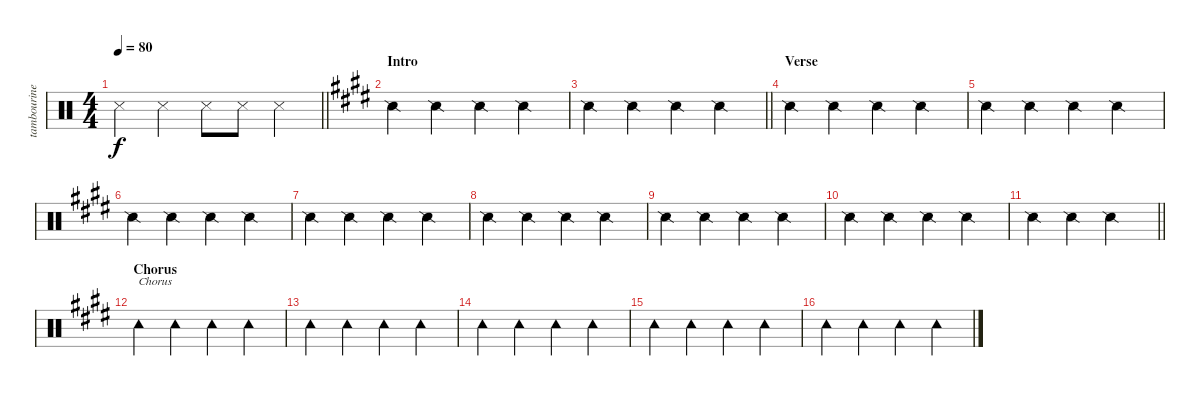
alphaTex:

\track ("tambourine" "tambourine") {instrument percussion}
\staff {score}
\articulation defaults
\ts (4 4)
\tempo 80
\clef neutral
\barLineRight lightlight
\ks c "Snare (side stick) 3".4{dy f} "Snare (side stick) 3".4 "Snare (side stick) 3".8 "Snare (side stick) 3".8 "Snare (side stick) 3".4
|
\section ("" "Intro")
\ks e "Snare (side stick) 2".4 "Snare (side stick) 2".4 "Snare (side stick) 2".4 "Snare (side stick) 2".4
|
\barLineRight lightlight "Snare (side stick) 2".4 "Snare (side stick) 2".4 "Snare (side stick) 2".4 "Snare (side stick) 2".4
|
\section ("" "Verse")
"Snare (side stick) 2".4 "Snare (side stick) 2".4 "Snare (side stick) 2".4 "Snare (side stick) 2".4 |
"Snare (side stick) 2".4 "Snare (side stick) 2".4 "Snare (side stick) 2".4 "Snare (side stick) 2".4 |
"Snare (side stick) 2".4 "Snare (side stick) 2".4 "Snare (side stick) 2".4 "Snare (side stick) 2".4 |
"Snare (side stick) 2".4 "Snare (side stick) 2".4 "Snare (side stick) 2".4 "Snare (side stick) 2".4 |
"Snare (side stick) 2".4 "Snare (side stick) 2".4 "Snare (side stick) 2".4 "Snare (side stick) 2".4 |
"Snare (side stick) 2".4 "Snare (side stick) 2".4 "Snare (side stick) 2".4 "Snare (side stick) 2".4 |
"Snare (side stick) 2".4 "Snare (side stick) 2".4 "Snare (side stick) 2".4 "Snare (side stick) 2".4 |
\barLineRight lightlight "Snare (side stick) 2".4 "Snare (side stick) 2".4 "Snare (side stick) 2".2
|
\section ("" "Chorus")
"Tambourine (hit)".4{txt "Chorus"} "Tambourine (hit)".4 "Tambourine (hit)".4 "Tambourine (hit)".4 |
"Tambourine (hit)".4 "Tambourine (hit)".4 "Tambourine (hit)".4 "Tambourine (hit)".4 |
"Tambourine (hit)".4 "Tambourine (hit)".4 "Tambourine (hit)".4 "Tambourine (hit)".4 |
"Tambourine (hit)".4 "Tambourine (hit)".4 "Tambourine (hit)".4 "Tambourine (hit)".4 |
"Tambourine (hit)".4 "Tambourine (hit)".4 "Tambourine (hit)".4 "Tambourine (hit)".4
